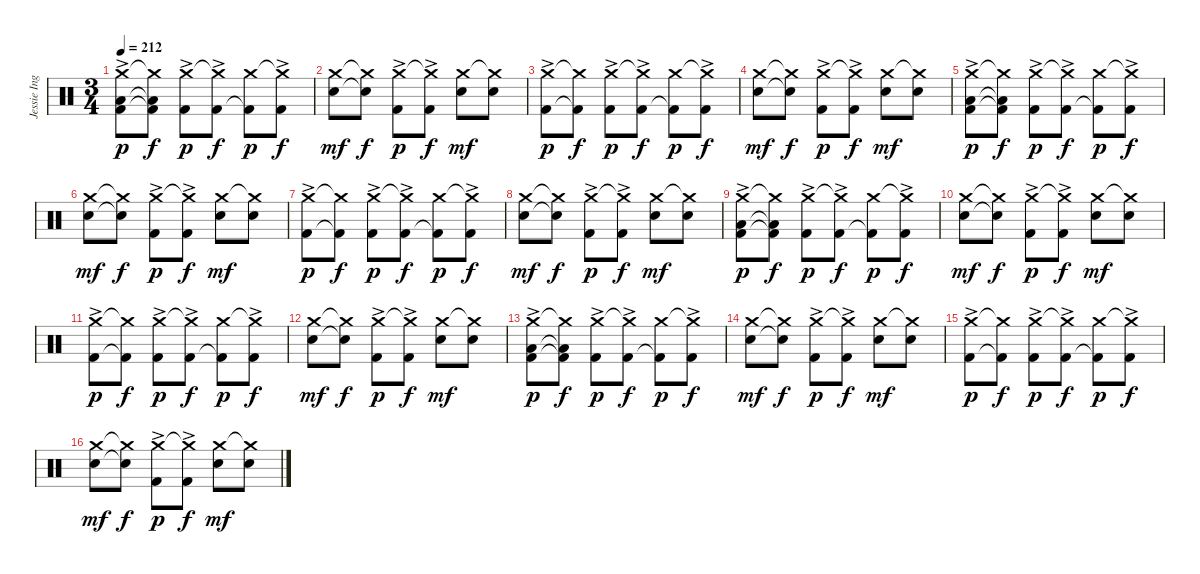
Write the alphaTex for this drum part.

\track ("Jessie Ingelevics" "Jessie Ing") {instrument percussion}
\staff {score}
\articulation defaults
\ts (3 4)
\tempo 212
\clef neutral
\ks c
("Crash medium (hit)" "Low Floor Tom (hit)" "Kick (hit) 2"{ac}).8{dy p} ("Crash medium (hit)"{t} "Low Floor Tom (hit)"{t} "Kick (hit) 2"{t}).8{dy f} ("Crash medium (hit)" "Kick (hit) 2"{ac}).8{dy p} ("Crash medium (hit)"{t} "Kick (hit) 2"{ac}).8{dy f} ("Crash medium (hit)" "Kick (hit) 2"{t}).8{dy p} ("Crash medium (hit)"{t} "Kick (hit) 2"{ac}).8{dy f} |
("Crash medium (hit)" "Electric Snare (hit)").8{dy mf} ("Crash medium (hit)"{t} "Electric Snare (hit)"{t}).8{dy f} ("Crash medium (hit)" "Kick (hit) 2"{ac}).8{dy p} ("Crash medium (hit)"{t} "Kick (hit) 2"{ac}).8{dy f} ("Crash medium (hit)" "Electric Snare (hit)").8{dy mf} ("Crash medium (hit)"{t} "Electric Snare (hit)").8 |
("Crash medium (hit)" "Kick (hit) 2"{ac}).8{dy p} ("Crash medium (hit)"{t} "Kick (hit) 2"{t}).8{dy f} ("Crash medium (hit)" "Kick (hit) 2"{ac}).8{dy p} ("Crash medium (hit)"{t} "Kick (hit) 2"{ac}).8{dy f} ("Crash medium (hit)" "Kick (hit) 2"{t}).8{dy p} ("Crash medium (hit)"{t} "Kick (hit) 2"{ac}).8{dy f} |
("Crash medium (hit)" "Electric Snare (hit)").8{dy mf} ("Crash medium (hit)"{t} "Electric Snare (hit)"{t}).8{dy f} ("Crash medium (hit)" "Kick (hit) 2"{ac}).8{dy p} ("Crash medium (hit)"{t} "Kick (hit) 2"{ac}).8{dy f} ("Crash medium (hit)" "Electric Snare (hit)").8{dy mf} ("Crash medium (hit)"{t} "Electric Snare (hit)").8 |
("Crash medium (hit)" "Low Floor Tom (hit)" "Kick (hit) 2"{ac}).8{dy p} ("Crash medium (hit)"{t} "Low Floor Tom (hit)"{t} "Kick (hit) 2"{t}).8{dy f} ("Crash medium (hit)" "Kick (hit) 2"{ac}).8{dy p} ("Crash medium (hit)"{t} "Kick (hit) 2"{ac}).8{dy f} ("Crash medium (hit)" "Kick (hit) 2"{t}).8{dy p} ("Crash medium (hit)"{t} "Kick (hit) 2"{ac}).8{dy f} |
("Crash medium (hit)" "Electric Snare (hit)").8{dy mf} ("Crash medium (hit)"{t} "Electric Snare (hit)"{t}).8{dy f} ("Crash medium (hit)" "Kick (hit) 2"{ac}).8{dy p} ("Crash medium (hit)"{t} "Kick (hit) 2"{ac}).8{dy f} ("Crash medium (hit)" "Electric Snare (hit)").8{dy mf} ("Crash medium (hit)"{t} "Electric Snare (hit)").8 |
("Crash medium (hit)" "Kick (hit) 2"{ac}).8{dy p} ("Crash medium (hit)"{t} "Kick (hit) 2"{t}).8{dy f} ("Crash medium (hit)" "Kick (hit) 2"{ac}).8{dy p} ("Crash medium (hit)"{t} "Kick (hit) 2"{ac}).8{dy f} ("Crash medium (hit)" "Kick (hit) 2"{t}).8{dy p} ("Crash medium (hit)"{t} "Kick (hit) 2"{ac}).8{dy f} |
("Crash medium (hit)" "Electric Snare (hit)").8{dy mf} ("Crash medium (hit)"{t} "Electric Snare (hit)"{t}).8{dy f} ("Crash medium (hit)" "Kick (hit) 2"{ac}).8{dy p} ("Crash medium (hit)"{t} "Kick (hit) 2"{ac}).8{dy f} ("Crash medium (hit)" "Electric Snare (hit)").8{dy mf} ("Crash medium (hit)"{t} "Electric Snare (hit)").8 |
("Crash medium (hit)" "Low Floor Tom (hit)" "Kick (hit) 2"{ac}).8{dy p} ("Crash medium (hit)"{t} "Low Floor Tom (hit)"{t} "Kick (hit) 2"{t}).8{dy f} ("Crash medium (hit)" "Kick (hit) 2"{ac}).8{dy p} ("Crash medium (hit)"{t} "Kick (hit) 2"{ac}).8{dy f} ("Crash medium (hit)" "Kick (hit) 2"{t}).8{dy p} ("Crash medium (hit)"{t} "Kick (hit) 2"{ac}).8{dy f} |
("Crash medium (hit)" "Electric Snare (hit)").8{dy mf} ("Crash medium (hit)"{t} "Electric Snare (hit)"{t}).8{dy f} ("Crash medium (hit)" "Kick (hit) 2"{ac}).8{dy p} ("Crash medium (hit)"{t} "Kick (hit) 2"{ac}).8{dy f} ("Crash medium (hit)" "Electric Snare (hit)").8{dy mf} ("Crash medium (hit)"{t} "Electric Snare (hit)").8 |
("Crash medium (hit)" "Kick (hit) 2"{ac}).8{dy p} ("Crash medium (hit)"{t} "Kick (hit) 2"{t}).8{dy f} ("Crash medium (hit)" "Kick (hit) 2"{ac}).8{dy p} ("Crash medium (hit)"{t} "Kick (hit) 2"{ac}).8{dy f} ("Crash medium (hit)" "Kick (hit) 2"{t}).8{dy p} ("Crash medium (hit)"{t} "Kick (hit) 2"{ac}).8{dy f} |
("Crash medium (hit)" "Electric Snare (hit)").8{dy mf} ("Crash medium (hit)"{t} "Electric Snare (hit)"{t}).8{dy f} ("Crash medium (hit)" "Kick (hit) 2"{ac}).8{dy p} ("Crash medium (hit)"{t} "Kick (hit) 2"{ac}).8{dy f} ("Crash medium (hit)" "Electric Snare (hit)").8{dy mf} ("Crash medium (hit)"{t} "Electric Snare (hit)").8 |
("Crash medium (hit)" "Low Floor Tom (hit)" "Kick (hit) 2"{ac}).8{dy p} ("Crash medium (hit)"{t} "Low Floor Tom (hit)"{t} "Kick (hit) 2"{t}).8{dy f} ("Crash medium (hit)" "Kick (hit) 2"{ac}).8{dy p} ("Crash medium (hit)"{t} "Kick (hit) 2"{ac}).8{dy f} ("Crash medium (hit)" "Kick (hit) 2"{t}).8{dy p} ("Crash medium (hit)"{t} "Kick (hit) 2"{ac}).8{dy f} |
("Crash medium (hit)" "Electric Snare (hit)").8{dy mf} ("Crash medium (hit)"{t} "Electric Snare (hit)"{t}).8{dy f} ("Crash medium (hit)" "Kick (hit) 2"{ac}).8{dy p} ("Crash medium (hit)"{t} "Kick (hit) 2"{ac}).8{dy f} ("Crash medium (hit)" "Electric Snare (hit)").8{dy mf} ("Crash medium (hit)"{t} "Electric Snare (hit)").8 |
("Crash medium (hit)" "Kick (hit) 2"{ac}).8{dy p} ("Crash medium (hit)"{t} "Kick (hit) 2"{t}).8{dy f} ("Crash medium (hit)" "Kick (hit) 2"{ac}).8{dy p} ("Crash medium (hit)"{t} "Kick (hit) 2"{ac}).8{dy f} ("Crash medium (hit)" "Kick (hit) 2"{t}).8{dy p} ("Crash medium (hit)"{t} "Kick (hit) 2"{ac}).8{dy f} |
("Crash medium (hit)" "Electric Snare (hit)").8{dy mf} ("Crash medium (hit)"{t} "Electric Snare (hit)"{t}).8{dy f} ("Crash medium (hit)" "Kick (hit) 2"{ac}).8{dy p} ("Crash medium (hit)"{t} "Kick (hit) 2"{ac}).8{dy f} ("Crash medium (hit)" "Electric Snare (hit)").8{dy mf} ("Crash medium (hit)"{t} "Electric Snare (hit)").8
